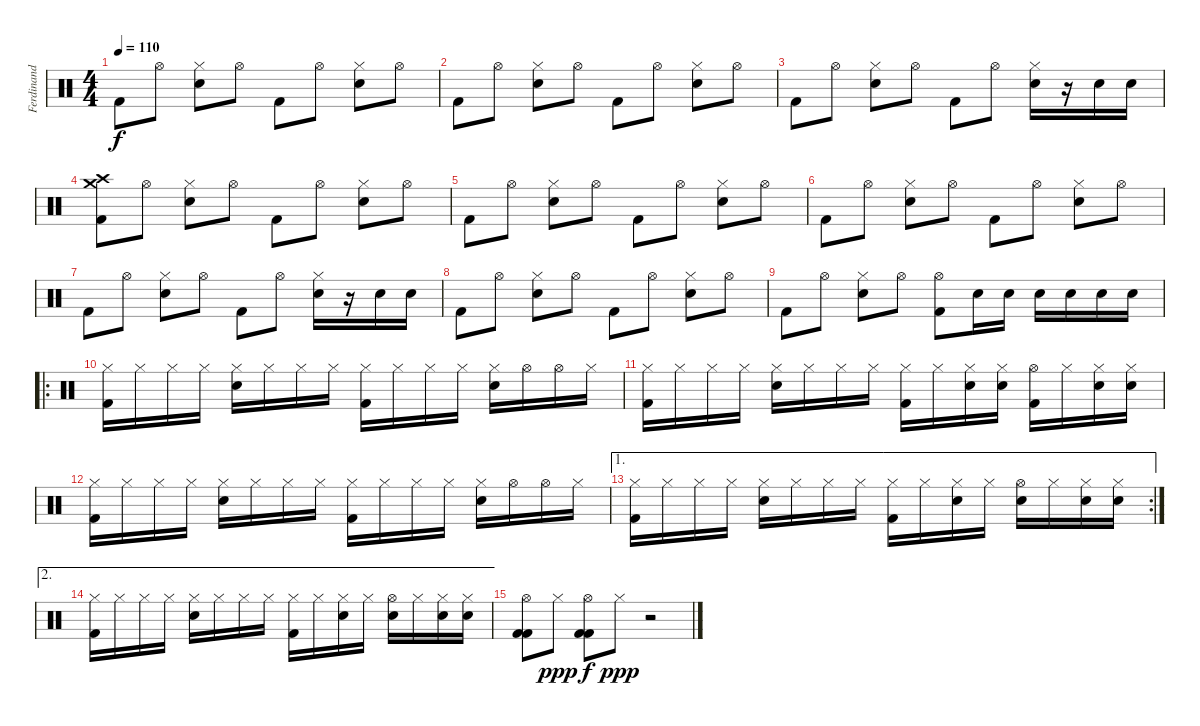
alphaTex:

\track ("Ferdinand" "Ferdinand") {instrument percussion}
\staff {score}
\articulation defaults
\ts (4 4)
\tempo 110
\clef neutral
\ks c "Kick (hit) 2".8{dy f} "Hi-Hat (open)".8
("Hi-Hat (closed)" "Electric Snare (hit)").8 "Hi-Hat (open)".8 "Kick (hit) 2".8 "Hi-Hat (open)".8 ("Hi-Hat (closed)" "Electric Snare (hit)").8 "Hi-Hat (open)".8 |
"Kick (hit) 2".8 "Hi-Hat (open)".8 ("Hi-Hat (closed)" "Electric Snare (hit)").8 "Hi-Hat (open)".8 "Kick (hit) 2".8 "Hi-Hat (open)".8 ("Hi-Hat (closed)" "Electric Snare (hit)").8 "Hi-Hat (open)".8 |
"Kick (hit) 2".8 "Hi-Hat (open)".8 ("Hi-Hat (closed)" "Electric Snare (hit)").8 "Hi-Hat (open)".8 "Kick (hit) 2".8 "Hi-Hat (open)".8 ("Hi-Hat (closed)" "Electric Snare (hit)").16 r.16 "Electric Snare (hit)".16 "Electric Snare (hit)".16 |
("Crash medium (hit)" "Crash high (hit)" "Kick (hit) 2").8 "Hi-Hat (open)".8 ("Hi-Hat (closed)" "Electric Snare (hit)").8 "Hi-Hat (open)".8 "Kick (hit) 2".8 "Hi-Hat (open)".8 ("Hi-Hat (closed)" "Electric Snare (hit)").8 "Hi-Hat (open)".8 |
"Kick (hit) 2".8 "Hi-Hat (open)".8 ("Hi-Hat (closed)" "Electric Snare (hit)").8 "Hi-Hat (open)".8 "Kick (hit) 2".8 "Hi-Hat (open)".8 ("Hi-Hat (closed)" "Electric Snare (hit)").8 "Hi-Hat (open)".8 |
"Kick (hit) 2".8 "Hi-Hat (open)".8 ("Hi-Hat (closed)" "Electric Snare (hit)").8 "Hi-Hat (open)".8 "Kick (hit) 2".8 "Hi-Hat (open)".8 ("Hi-Hat (closed)" "Electric Snare (hit)").8 "Hi-Hat (open)".8 |
"Kick (hit) 2".8 "Hi-Hat (open)".8 ("Hi-Hat (closed)" "Electric Snare (hit)").8 "Hi-Hat (open)".8 "Kick (hit) 2".8 "Hi-Hat (open)".8 ("Hi-Hat (closed)" "Electric Snare (hit)").16 r.16 "Electric Snare (hit)".16 "Electric Snare (hit)".16 |
"Kick (hit) 2".8 "Hi-Hat (open)".8 ("Hi-Hat (closed)" "Electric Snare (hit)").8 "Hi-Hat (open)".8 "Kick (hit) 2".8 "Hi-Hat (open)".8 ("Hi-Hat (closed)" "Electric Snare (hit)").8 "Hi-Hat (open)".8 |
"Kick (hit) 2".8 "Hi-Hat (open)".8 ("Hi-Hat (closed)" "Electric Snare (hit)").8 "Hi-Hat (open)".8 ("Hi-Hat (open)" "Kick (hit) 2").8 "Electric Snare (hit)".16 "Electric Snare (hit)".16 "Electric Snare (hit)".16 "Electric Snare (hit)".16 "Electric Snare (hit)".16 "Electric Snare (hit)".16 |
\ro
("Hi-Hat (closed)" "Kick (hit) 2").16 "Hi-Hat (closed)".16 "Hi-Hat (closed)".16 "Hi-Hat (closed)".16 ("Hi-Hat (closed)" "Electric Snare (hit)").16 "Hi-Hat (closed)".16 "Hi-Hat (closed)".16 "Hi-Hat (closed)".16 ("Hi-Hat (closed)" "Kick (hit) 2").16 "Hi-Hat (closed)".16 "Hi-Hat (closed)".16 "Hi-Hat (closed)".16 ("Hi-Hat (closed)" "Electric Snare (hit)").16 "Hi-Hat (open)".16 "Hi-Hat (open)".16 "Hi-Hat (closed)".16 |
("Hi-Hat (closed)" "Kick (hit) 2").16 "Hi-Hat (closed)".16 "Hi-Hat (closed)".16 "Hi-Hat (closed)".16 ("Hi-Hat (closed)" "Electric Snare (hit)").16 "Hi-Hat (closed)".16 "Hi-Hat (closed)".16 "Hi-Hat (closed)".16 ("Hi-Hat (closed)" "Kick (hit) 2").16 "Hi-Hat (closed)".16 ("Hi-Hat (closed)" "Electric Snare (hit)").16 ("Hi-Hat (closed)" "Electric Snare (hit)").16 ("Hi-Hat (open)" "Kick (hit) 2").16 "Hi-Hat (closed)".16 ("Hi-Hat (closed)" "Electric Snare (hit)").16 ("Hi-Hat (closed)" "Electric Snare (hit)").16 |
("Hi-Hat (closed)" "Kick (hit) 2").16 "Hi-Hat (closed)".16 "Hi-Hat (closed)".16 "Hi-Hat (closed)".16 ("Hi-Hat (closed)" "Electric Snare (hit)").16 "Hi-Hat (closed)".16 "Hi-Hat (closed)".16 "Hi-Hat (closed)".16 ("Hi-Hat (closed)" "Kick (hit) 2").16 "Hi-Hat (closed)".16 "Hi-Hat (closed)".16 "Hi-Hat (closed)".16 ("Hi-Hat (closed)" "Electric Snare (hit)").16 "Hi-Hat (open)".16 "Hi-Hat (open)".16 "Hi-Hat (closed)".16 |
\ae 1
\rc 2
("Hi-Hat (closed)" "Kick (hit) 2").16 "Hi-Hat (closed)".16 "Hi-Hat (closed)".16 "Hi-Hat (closed)".16 ("Hi-Hat (closed)" "Electric Snare (hit)").16 "Hi-Hat (closed)".16 "Hi-Hat (closed)".16 "Hi-Hat (closed)".16 ("Hi-Hat (closed)" "Kick (hit) 2").16 "Hi-Hat (closed)".16 ("Hi-Hat (closed)" "Electric Snare (hit)").16 "Hi-Hat (closed)".16 ("Hi-Hat (open)" "Electric Snare (hit)").16 "Hi-Hat (closed)".16 ("Hi-Hat (closed)" "Electric Snare (hit)").16 ("Hi-Hat (closed)" "Electric Snare (hit)").16 |
\ae 2
("Hi-Hat (closed)" "Kick (hit) 2").16 "Hi-Hat (closed)".16 "Hi-Hat (closed)".16 "Hi-Hat (closed)".16 ("Hi-Hat (closed)" "Electric Snare (hit)").16 "Hi-Hat (closed)".16 "Hi-Hat (closed)".16 "Hi-Hat (closed)".16 ("Hi-Hat (closed)" "Kick (hit) 2").16 "Hi-Hat (closed)".16 ("Hi-Hat (closed)" "Electric Snare (hit)").16 "Hi-Hat (closed)".16 ("Hi-Hat (open)" "Electric Snare (hit)").16 "Hi-Hat (closed)".16 ("Hi-Hat (closed)" "Electric Snare (hit)").16 ("Hi-Hat (closed)" "Electric Snare (hit)").16 |
("Hi-Hat (open)" "Kick (hit) 2" "Kick (hit) 2").8 "Hi-Hat (closed)".8{dy ppp} ("Hi-Hat (open)" "Kick (hit) 2" "Kick (hit) 2").8{dy f} "Hi-Hat (closed)".8{dy ppp} r.2
